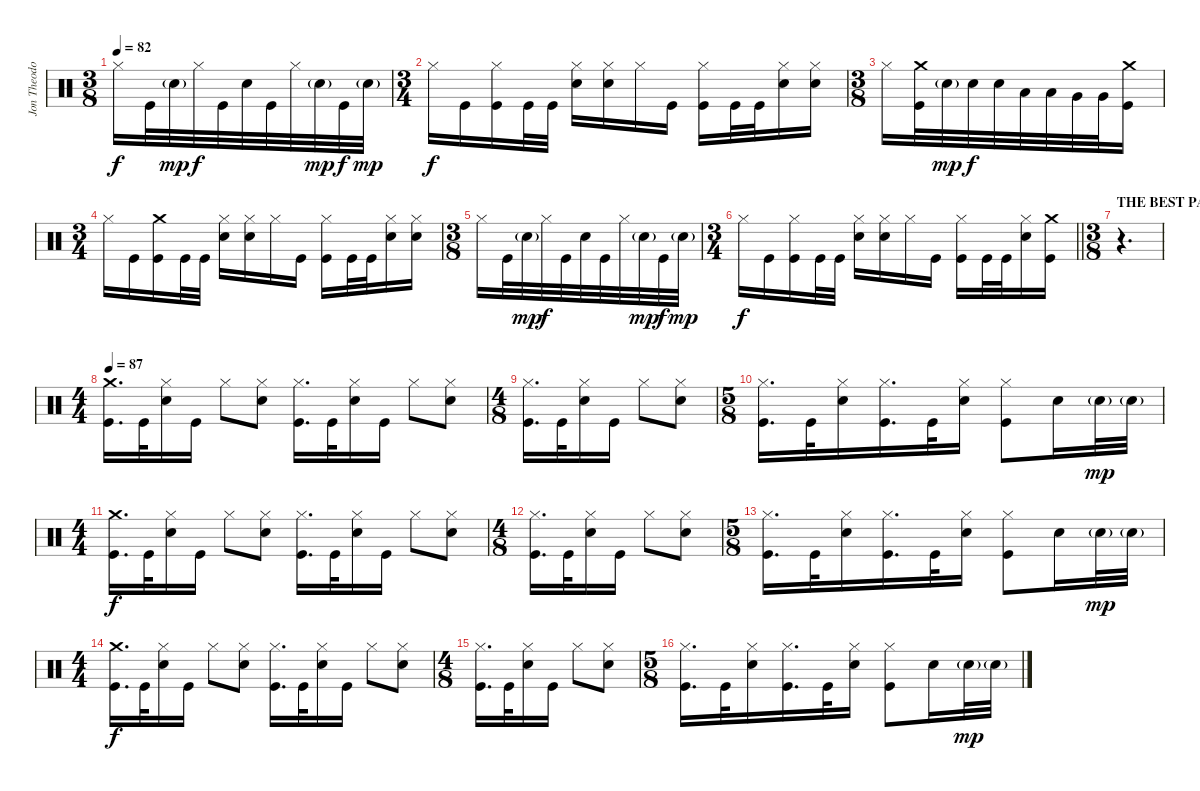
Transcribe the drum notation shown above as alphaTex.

\track ("Jon Theodore" "Jon Theodo") {instrument percussion}
\staff {score}
\articulation defaults
\ts (3 8)
\tempo 82
\clef neutral
\ks c "Hi-Hat (closed)".16{dy f} "Kick (hit)".32 "Snare (hit) 2"{g}.32{dy mp} "Hi-Hat (closed)".32{dy f} "Kick (hit)".32 "Snare (hit) 2".32 "Kick (hit)".32 "Hi-Hat (closed)".32 "Snare (hit) 2"{g}.32{dy mp} "Kick (hit)".32{dy f} "Snare (hit) 2"{g}.32{dy mp}
|
\ts (3 4)
"Hi-Hat (closed)".16{dy f} "Kick (hit)".16 ("Hi-Hat (closed)" "Kick (hit)").16 "Kick (hit)".32 "Kick (hit)".32 ("Hi-Hat (closed)" "Snare (hit) 2").16 ("Hi-Hat (closed)" "Snare (hit) 2").16 "Hi-Hat (closed)".16 "Kick (hit)".16 ("Hi-Hat (closed)" "Kick (hit)").16 "Kick (hit)".32 "Kick (hit)".32 ("Hi-Hat (closed)" "Snare (hit) 2").16 ("Hi-Hat (closed)" "Snare (hit) 2").16 |
\ts (3 8)
"Hi-Hat (closed)".16 ("Crash medium (hit)" "Kick (hit)").32 "Snare (hit) 2"{g}.32{dy mp} "Snare (hit) 2".32{dy f} "Snare (hit) 2".32 "Low Tom (hit)".32 "Low Tom (hit)".32 "Very Low Tom (hit)".32 "Very Low Tom (hit)".32 ("Crash medium (hit)" "Kick (hit)").16 |
\ts (3 4)
"Hi-Hat (closed)".16 "Kick (hit)".16 ("Crash medium (hit)" "Kick (hit)").16 "Kick (hit)".32 "Kick (hit)".32 ("Hi-Hat (closed)" "Snare (hit) 2").16 ("Hi-Hat (closed)" "Snare (hit) 2").16 "Hi-Hat (closed)".16 "Kick (hit)".16 ("Hi-Hat (closed)" "Kick (hit)").16 "Kick (hit)".32 "Kick (hit)".32 ("Hi-Hat (closed)" "Snare (hit) 2").16 ("Hi-Hat (closed)" "Snare (hit) 2").16 |
\ts (3 8)
"Hi-Hat (closed)".16 "Kick (hit)".32 "Snare (hit) 2"{g}.32{dy mp} "Hi-Hat (closed)".32{dy f} "Kick (hit)".32 "Snare (hit) 2".32 "Kick (hit)".32 "Hi-Hat (closed)".32 "Snare (hit) 2"{g}.32{dy mp} "Kick (hit)".32{dy f} "Snare (hit) 2"{g}.32{dy mp} |
\ts (3 4)
\barLineRight lightlight "Hi-Hat (closed)".16{dy f} "Kick (hit)".16
("Hi-Hat (closed)" "Kick (hit)").16 "Kick (hit)".32 "Kick (hit)".32 ("Hi-Hat (closed)" "Snare (hit) 2").16 ("Hi-Hat (closed)" "Snare (hit) 2").16 "Hi-Hat (closed)".16 "Kick (hit)".16 ("Hi-Hat (closed)" "Kick (hit)").16 "Kick (hit)".32 "Kick (hit)".32 ("Hi-Hat (closed)" "Snare (hit) 2").16 ("Crash medium (hit)" "Kick (hit)").16 |
\ts (3 8)
\section ("" "THE BEST PART!!!")
r.4{d} |
\ts (4 4)
\tempo 87
("Crash medium (hit)" "Kick (hit)").16{d} "Kick (hit)".32 ("Hi-Hat (closed)" "Snare (hit) 2").16 "Kick (hit)".16 "Hi-Hat (closed)".8 ("Hi-Hat (closed)" "Snare (hit) 2").8 ("Hi-Hat (closed)" "Kick (hit)").16{d} "Kick (hit)".32 ("Hi-Hat (closed)" "Snare (hit) 2").16 "Kick (hit)".16 "Hi-Hat (closed)".8 ("Hi-Hat (closed)" "Snare (hit) 2").8 |
\ts (4 8)
("Hi-Hat (closed)" "Kick (hit)").16{d} "Kick (hit)".32 ("Hi-Hat (closed)" "Snare (hit) 2").16 "Kick (hit)".16 "Hi-Hat (closed)".8 ("Hi-Hat (closed)" "Snare (hit) 2").8 |
\ts (5 8)
("Hi-Hat (closed)" "Kick (hit)").16{d} "Kick (hit)".32 ("Hi-Hat (closed)" "Snare (hit) 2").16 ("Hi-Hat (closed)" "Kick (hit)").16{d} "Kick (hit)".32 ("Hi-Hat (closed)" "Snare (hit) 2").16 ("Hi-Hat (closed)" "Kick (hit)").8 "Snare (hit) 2".16 "Snare (hit) 2"{g}.32{dy mp} "Snare (hit) 2"{g}.32 |
\ts (4 4)
("Crash medium (hit)" "Kick (hit)").16{d dy f} "Kick (hit)".32 ("Hi-Hat (closed)" "Snare (hit) 2").16 "Kick (hit)".16 "Hi-Hat (closed)".8 ("Hi-Hat (closed)" "Snare (hit) 2").8 ("Hi-Hat (closed)" "Kick (hit)").16{d} "Kick (hit)".32 ("Hi-Hat (closed)" "Snare (hit) 2").16 "Kick (hit)".16 "Hi-Hat (closed)".8 ("Hi-Hat (closed)" "Snare (hit) 2").8 |
\ts (4 8)
("Hi-Hat (closed)" "Kick (hit)").16{d} "Kick (hit)".32 ("Hi-Hat (closed)" "Snare (hit) 2").16 "Kick (hit)".16 "Hi-Hat (closed)".8 ("Hi-Hat (closed)" "Snare (hit) 2").8 |
\ts (5 8)
("Hi-Hat (closed)" "Kick (hit)").16{d} "Kick (hit)".32 ("Hi-Hat (closed)" "Snare (hit) 2").16 ("Hi-Hat (closed)" "Kick (hit)").16{d} "Kick (hit)".32 ("Hi-Hat (closed)" "Snare (hit) 2").16 ("Hi-Hat (closed)" "Kick (hit)").8 "Snare (hit) 2".16 "Snare (hit) 2"{g}.32{dy mp} "Snare (hit) 2"{g}.32 |
\ts (4 4)
("Crash medium (hit)" "Kick (hit)").16{d dy f} "Kick (hit)".32 ("Hi-Hat (closed)" "Snare (hit) 2").16 "Kick (hit)".16 "Hi-Hat (closed)".8 ("Hi-Hat (closed)" "Snare (hit) 2").8 ("Hi-Hat (closed)" "Kick (hit)").16{d} "Kick (hit)".32 ("Hi-Hat (closed)" "Snare (hit) 2").16 "Kick (hit)".16 "Hi-Hat (closed)".8 ("Hi-Hat (closed)" "Snare (hit) 2").8 |
\ts (4 8)
("Hi-Hat (closed)" "Kick (hit)").16{d} "Kick (hit)".32 ("Hi-Hat (closed)" "Snare (hit) 2").16 "Kick (hit)".16 "Hi-Hat (closed)".8 ("Hi-Hat (closed)" "Snare (hit) 2").8 |
\ts (5 8)
("Hi-Hat (closed)" "Kick (hit)").16{d} "Kick (hit)".32 ("Hi-Hat (closed)" "Snare (hit) 2").16 ("Hi-Hat (closed)" "Kick (hit)").16{d} "Kick (hit)".32 ("Hi-Hat (closed)" "Snare (hit) 2").16 ("Hi-Hat (closed)" "Kick (hit)").8 "Snare (hit) 2".16 "Snare (hit) 2"{g}.32{dy mp} "Snare (hit) 2"{g}.32
